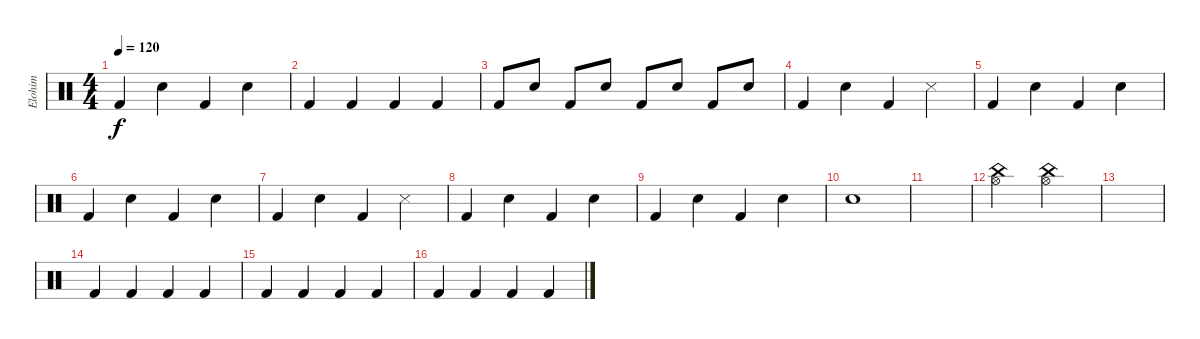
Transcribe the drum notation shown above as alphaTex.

\track ("Elohim" "Elohim") {instrument percussion}
\staff {score}
\articulation defaults
\ts (4 4)
\tempo 120
\clef neutral
\ks c "Kick (hit) 2".4{dy f} "Snare (hit) 2".4 "Kick (hit) 2".4 "Snare (hit) 2".4
|
"Kick (hit) 2".4 "Kick (hit) 2".4 "Kick (hit) 2".4 "Kick (hit) 2".4 |
"Kick (hit) 2".8 "Snare (hit) 2".8 "Kick (hit) 2".8 "Snare (hit) 2".8 "Kick (hit) 2".8 "Snare (hit) 2".8 "Kick (hit) 2".8 "Snare (hit) 2".8 |
"Kick (hit) 2".4 "Snare (hit) 2".4 "Kick (hit) 2".4 "Snare (side stick) 3".4 |
"Kick (hit) 2".4 "Snare (hit) 2".4 "Kick (hit) 2".4 "Snare (hit) 2".4 |
"Kick (hit) 2".4 "Snare (hit) 2".4 "Kick (hit) 2".4 "Snare (hit) 2".4 |
"Kick (hit) 2".4 "Snare (hit) 2".4 "Kick (hit) 2".4 "Snare (side stick) 3".4 |
"Kick (hit) 2".4 "Snare (hit) 2".4 "Kick (hit) 2".4 "Snare (hit) 2".4 |
"Kick (hit) 2".4 "Snare (hit) 2".4 "Kick (hit) 2".4 "Snare (hit) 2".4 |
"Snare (hit) 2".1 |
|
("China (hit)" "Hi-Hat (open)").2 ("China (hit)" "Hi-Hat (open)").2 |
|
"Kick (hit) 2".4 "Kick (hit) 2".4 "Kick (hit) 2".4 "Kick (hit) 2".4 |
"Kick (hit) 2".4 "Kick (hit) 2".4 "Kick (hit) 2".4 "Kick (hit) 2".4 |
"Kick (hit) 2".4 "Kick (hit) 2".4 "Kick (hit) 2".4 "Kick (hit) 2".4
